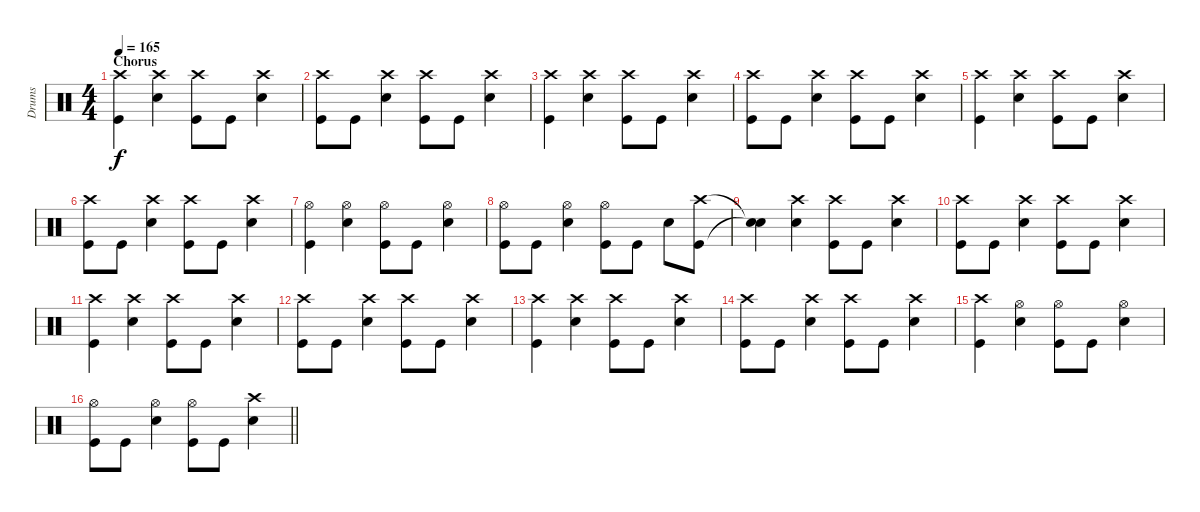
\track ("Drums" "Drums") {instrument percussion}
\staff {score}
\articulation defaults
\ts (4 4)
\section ("" "Chorus")
\tempo 165
\clef neutral
\ks c
("Crash high (hit)" "Kick (hit)").4{dy f} ("Crash high (hit)" "Snare (hit) 2").4 ("Crash high (hit)" "Kick (hit)").8 "Kick (hit)".8 ("Crash high (hit)" "Snare (hit) 2").4 |
("Crash high (hit)" "Kick (hit)").8 "Kick (hit)".8 ("Crash high (hit)" "Snare (hit) 2").4 ("Crash high (hit)" "Kick (hit)").8 "Kick (hit)".8 ("Crash high (hit)" "Snare (hit) 2").4 |
("Crash high (hit)" "Kick (hit)").4 ("Crash high (hit)" "Snare (hit) 2").4 ("Crash high (hit)" "Kick (hit)").8 "Kick (hit)".8 ("Crash high (hit)" "Snare (hit) 2").4 |
("Crash high (hit)" "Kick (hit)").8 "Kick (hit)".8 ("Crash high (hit)" "Snare (hit) 2").4 ("Crash high (hit)" "Kick (hit)").8 "Kick (hit)".8 ("Crash high (hit)" "Snare (hit) 2").4 |
("Crash high (hit)" "Kick (hit)").4 ("Crash high (hit)" "Snare (hit) 2").4 ("Crash high (hit)" "Kick (hit)").8 "Kick (hit)".8 ("Crash high (hit)" "Snare (hit) 2").4 |
("Crash high (hit)" "Kick (hit)").8 "Kick (hit)".8 ("Crash high (hit)" "Snare (hit) 2").4 ("Crash high (hit)" "Kick (hit)").8 "Kick (hit)".8 ("Crash high (hit)" "Snare (hit) 2").4 |
("Hi-Hat (open)" "Kick (hit)").4 ("Hi-Hat (open)" "Snare (hit) 2").4 ("Hi-Hat (open)" "Kick (hit)").8 "Kick (hit)".8 ("Hi-Hat (open)" "Snare (hit) 2").4 |
("Hi-Hat (open)" "Kick (hit)").8 "Kick (hit)".8 ("Hi-Hat (open)" "Snare (hit) 2").4 ("Hi-Hat (open)" "Kick (hit)").8 "Kick (hit)".8 "Snare (hit) 2".8 ("Kick (hit)" "Crash high (hit)").8 |
("Snare (hit)"{t} "Snare (hit)"{t}).4 ("Crash high (hit)" "Snare (hit) 2").4 ("Crash high (hit)" "Kick (hit)").8 "Kick (hit)".8 ("Crash high (hit)" "Snare (hit) 2").4 |
("Crash high (hit)" "Kick (hit)").8 "Kick (hit)".8 ("Crash high (hit)" "Snare (hit) 2").4 ("Crash high (hit)" "Kick (hit)").8 "Kick (hit)".8 ("Crash high (hit)" "Snare (hit) 2").4 |
("Crash high (hit)" "Kick (hit)").4 ("Crash high (hit)" "Snare (hit) 2").4 ("Crash high (hit)" "Kick (hit)").8 "Kick (hit)".8 ("Crash high (hit)" "Snare (hit) 2").4 |
("Crash high (hit)" "Kick (hit)").8 "Kick (hit)".8 ("Crash high (hit)" "Snare (hit) 2").4 ("Crash high (hit)" "Kick (hit)").8 "Kick (hit)".8 ("Crash high (hit)" "Snare (hit) 2").4 |
("Crash high (hit)" "Kick (hit)").4 ("Crash high (hit)" "Snare (hit) 2").4 ("Crash high (hit)" "Kick (hit)").8 "Kick (hit)".8 ("Crash high (hit)" "Snare (hit) 2").4 |
("Crash high (hit)" "Kick (hit)").8 "Kick (hit)".8 ("Crash high (hit)" "Snare (hit) 2").4 ("Crash high (hit)" "Kick (hit)").8 "Kick (hit)".8 ("Crash high (hit)" "Snare (hit) 2").4 |
("Crash high (hit)" "Kick (hit)").4 ("Hi-Hat (open)" "Snare (hit) 2").4 ("Hi-Hat (open)" "Kick (hit)").8 "Kick (hit)".8 ("Hi-Hat (open)" "Snare (hit) 2").4 |
\barLineRight lightlight
("Hi-Hat (open)" "Kick (hit)").8 "Kick (hit)".8 ("Hi-Hat (open)" "Snare (hit) 2").4 ("Hi-Hat (open)" "Kick (hit)").8 "Kick (hit)".8 ("Crash high (hit)" "Snare (hit) 2").4
